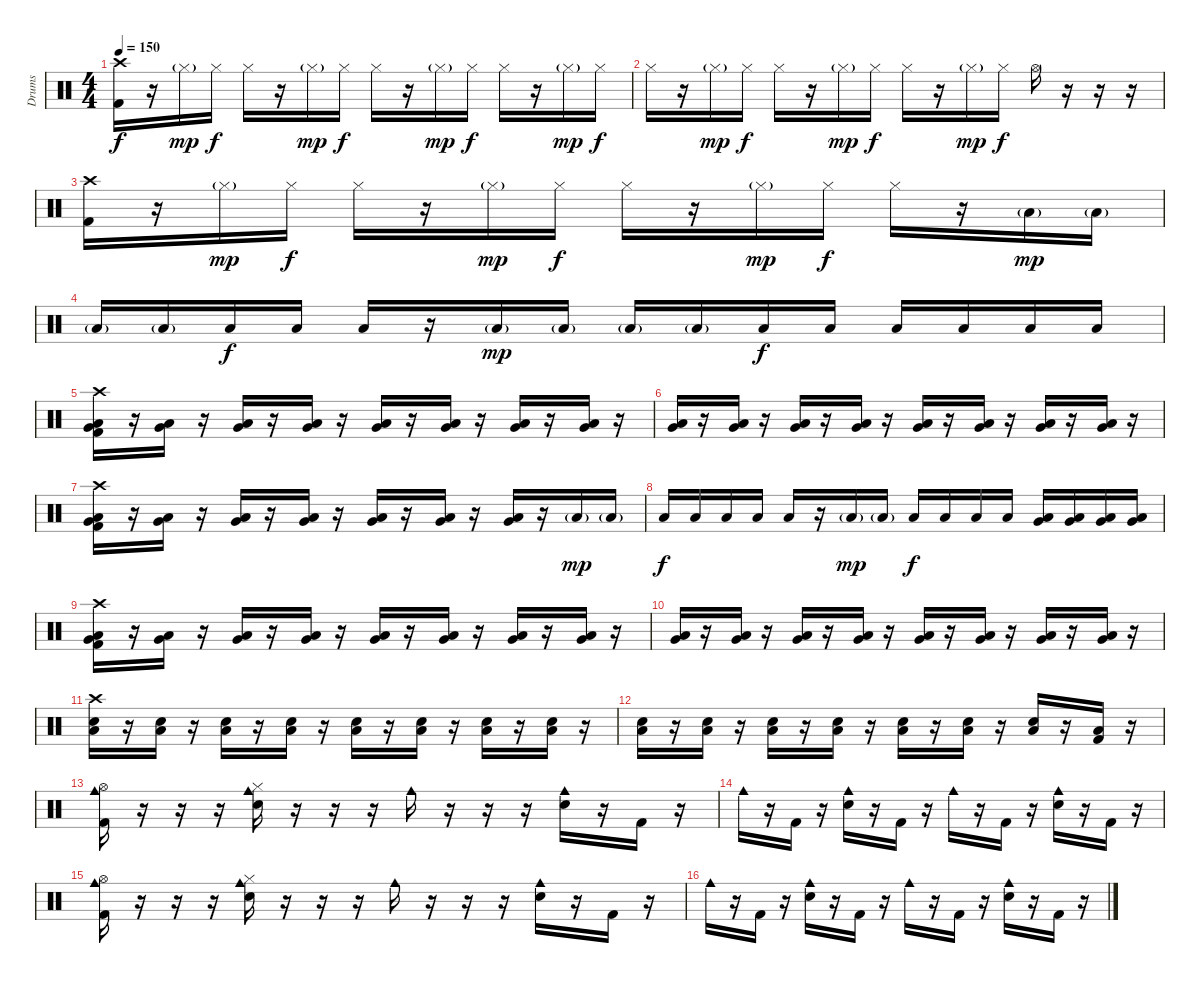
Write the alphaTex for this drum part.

\track ("Drums" "Drums") {instrument percussion}
\staff {score}
\articulation defaults
\ts (4 4)
\tempo 150
\clef neutral
\ks c
("Crash high (hit)" "Kick (hit) 2").16{dy f} r.16 "Hi-Hat (closed)"{g}.16{dy mp} "Hi-Hat (closed)".16{dy f} "Hi-Hat (closed)".16 r.16 "Hi-Hat (closed)"{g}.16{dy mp} "Hi-Hat (closed)".16{dy f} "Hi-Hat (closed)".16 r.16 "Hi-Hat (closed)"{g}.16{dy mp} "Hi-Hat (closed)".16{dy f} "Hi-Hat (closed)".16 r.16 "Hi-Hat (closed)"{g}.16{dy mp} "Hi-Hat (closed)".16{dy f} |
"Hi-Hat (closed)".16 r.16 "Hi-Hat (closed)"{g}.16{dy mp} "Hi-Hat (closed)".16{dy f} "Hi-Hat (closed)".16 r.16 "Hi-Hat (closed)"{g}.16{dy mp} "Hi-Hat (closed)".16{dy f} "Hi-Hat (closed)".16 r.16 "Hi-Hat (closed)"{g}.16{dy mp} "Hi-Hat (closed)".16{dy f} "Hi-Hat (open)".16 r.16 r.16 r.16 |
("Crash high (hit)" "Kick (hit) 2").16 r.16 "Hi-Hat (closed)"{g}.16{dy mp} "Hi-Hat (closed)".16{dy f} "Hi-Hat (closed)".16 r.16 "Hi-Hat (closed)"{g}.16{dy mp} "Hi-Hat (closed)".16{dy f} "Hi-Hat (closed)".16 r.16 "Hi-Hat (closed)"{g}.16{dy mp} "Hi-Hat (closed)".16{dy f} "Hi-Hat (closed)".16 r.16 "Low Floor Tom (hit)"{g}.16{dy mp} "Low Floor Tom (hit)"{g}.16 |
"Low Floor Tom (hit)"{g}.16 "Low Floor Tom (hit)"{g}.16 "Low Floor Tom (hit)".16{dy f} "Low Floor Tom (hit)".16 "Low Floor Tom (hit)".16 r.16 "Low Floor Tom (hit)"{g}.16{dy mp} "Low Floor Tom (hit)"{g}.16 "Low Floor Tom (hit)"{g}.16 "Low Floor Tom (hit)"{g}.16 "Low Floor Tom (hit)".16{dy f} "Low Floor Tom (hit)".16 "Low Floor Tom (hit)".16 "Low Floor Tom (hit)".16 "Low Floor Tom (hit)".16 "Low Floor Tom (hit)".16 |
("Crash high (hit)" "Very Low Tom (hit)" "Low Floor Tom (hit)" "Kick (hit) 2").16 r.16 ("Very Low Tom (hit)" "Low Floor Tom (hit)").16 r.16 ("Very Low Tom (hit)" "Low Floor Tom (hit)").16 r.16 ("Very Low Tom (hit)" "Low Floor Tom (hit)").16 r.16 ("Very Low Tom (hit)" "Low Floor Tom (hit)").16 r.16 ("Very Low Tom (hit)" "Low Floor Tom (hit)").16 r.16 ("Very Low Tom (hit)" "Low Floor Tom (hit)").16 r.16 ("Very Low Tom (hit)" "Low Floor Tom (hit)").16 r.16 |
("Very Low Tom (hit)" "Low Floor Tom (hit)").16 r.16 ("Very Low Tom (hit)" "Low Floor Tom (hit)").16 r.16 ("Very Low Tom (hit)" "Low Floor Tom (hit)").16 r.16 ("Very Low Tom (hit)" "Low Floor Tom (hit)").16 r.16 ("Very Low Tom (hit)" "Low Floor Tom (hit)").16 r.16 ("Very Low Tom (hit)" "Low Floor Tom (hit)").16 r.16 ("Very Low Tom (hit)" "Low Floor Tom (hit)").16 r.16 ("Very Low Tom (hit)" "Low Floor Tom (hit)").16 r.16 |
("Crash high (hit)" "Very Low Tom (hit)" "Low Floor Tom (hit)" "Kick (hit) 2").16 r.16 ("Very Low Tom (hit)" "Low Floor Tom (hit)").16 r.16 ("Very Low Tom (hit)" "Low Floor Tom (hit)").16 r.16 ("Very Low Tom (hit)" "Low Floor Tom (hit)").16 r.16 ("Very Low Tom (hit)" "Low Floor Tom (hit)").16 r.16 ("Very Low Tom (hit)" "Low Floor Tom (hit)").16 r.16 ("Very Low Tom (hit)" "Low Floor Tom (hit)").16 r.16 "Low Floor Tom (hit)"{g}.16{dy mp} "Low Floor Tom (hit)"{g}.16 |
"Low Floor Tom (hit)".16{dy f} "Low Floor Tom (hit)".16 "Low Floor Tom (hit)".16 "Low Floor Tom (hit)".16 "Low Floor Tom (hit)".16 r.16 "Low Floor Tom (hit)"{g}.16{dy mp} "Low Floor Tom (hit)"{g}.16 "Low Floor Tom (hit)".16{dy f} "Low Floor Tom (hit)".16 "Low Floor Tom (hit)".16 "Low Floor Tom (hit)".16 ("Very Low Tom (hit)" "Low Floor Tom (hit)").16 ("Very Low Tom (hit)" "Low Floor Tom (hit)").16 ("Very Low Tom (hit)" "Low Floor Tom (hit)").16 ("Very Low Tom (hit)" "Low Floor Tom (hit)").16 |
("Crash high (hit)" "Very Low Tom (hit)" "Low Floor Tom (hit)" "Kick (hit) 2").16 r.16 ("Very Low Tom (hit)" "Low Floor Tom (hit)").16 r.16 ("Very Low Tom (hit)" "Low Floor Tom (hit)").16 r.16 ("Very Low Tom (hit)" "Low Floor Tom (hit)").16 r.16 ("Very Low Tom (hit)" "Low Floor Tom (hit)").16 r.16 ("Very Low Tom (hit)" "Low Floor Tom (hit)").16 r.16 ("Very Low Tom (hit)" "Low Floor Tom (hit)").16 r.16 ("Very Low Tom (hit)" "Low Floor Tom (hit)").16 r.16 |
("Very Low Tom (hit)" "Low Floor Tom (hit)").16 r.16 ("Very Low Tom (hit)" "Low Floor Tom (hit)").16 r.16 ("Very Low Tom (hit)" "Low Floor Tom (hit)").16 r.16 ("Very Low Tom (hit)" "Low Floor Tom (hit)").16 r.16 ("Very Low Tom (hit)" "Low Floor Tom (hit)").16 r.16 ("Very Low Tom (hit)" "Low Floor Tom (hit)").16 r.16 ("Very Low Tom (hit)" "Low Floor Tom (hit)").16 r.16 ("Very Low Tom (hit)" "Low Floor Tom (hit)").16 r.16 |
("Crash high (hit)" "Low Floor Tom (hit)" "Snare (hit) 2").16 r.16 ("Low Floor Tom (hit)" "Snare (hit) 2").16 r.16 ("Low Floor Tom (hit)" "Snare (hit) 2").16 r.16 ("Low Floor Tom (hit)" "Snare (hit) 2").16 r.16 ("Low Floor Tom (hit)" "Snare (hit) 2").16 r.16 ("Low Floor Tom (hit)" "Snare (hit) 2").16 r.16 ("Low Floor Tom (hit)" "Snare (hit) 2").16 r.16 ("Low Floor Tom (hit)" "Snare (hit) 2").16 r.16 |
("Low Floor Tom (hit)" "Snare (hit) 2").16 r.16 ("Low Floor Tom (hit)" "Snare (hit) 2").16 r.16 ("Low Floor Tom (hit)" "Snare (hit) 2").16 r.16 ("Low Floor Tom (hit)" "Snare (hit) 2").16 r.16 ("Low Floor Tom (hit)" "Snare (hit) 2").16 r.16 ("Low Floor Tom (hit)" "Snare (hit) 2").16 r.16 ("Low Floor Tom (hit)" "Snare (hit) 2").16 r.16 ("Low Floor Tom (hit)" "Kick (hit) 2").16 r.16 |
("Cowbell medium (hit)" "Hi-Hat (open)" "Kick (hit) 2").16 r.16 r.16 r.16 ("Cowbell medium (hit)" "Hi-Hat (closed)" "Snare (hit) 2").16 r.16 r.16 r.16 "Cowbell medium (hit)".16 r.16 r.16 r.16 ("Cowbell medium (hit)" "Snare (hit) 2").16 r.16 "Kick (hit) 2".16 r.16 |
"Cowbell medium (hit)".16 r.16 "Kick (hit) 2".16 r.16 ("Cowbell medium (hit)" "Snare (hit) 2").16 r.16 "Kick (hit) 2".16 r.16 "Cowbell medium (hit)".16 r.16 "Kick (hit) 2".16 r.16 ("Cowbell medium (hit)" "Snare (hit) 2").16 r.16 "Kick (hit) 2".16 r.16 |
("Cowbell medium (hit)" "Hi-Hat (open)" "Kick (hit) 2").16 r.16 r.16 r.16 ("Cowbell medium (hit)" "Hi-Hat (closed)" "Snare (hit) 2").16 r.16 r.16 r.16 "Cowbell medium (hit)".16 r.16 r.16 r.16 ("Cowbell medium (hit)" "Snare (hit) 2").16 r.16 "Kick (hit) 2".16 r.16 |
"Cowbell medium (hit)".16 r.16 "Kick (hit) 2".16 r.16 ("Cowbell medium (hit)" "Snare (hit) 2").16 r.16 "Kick (hit) 2".16 r.16 "Cowbell medium (hit)".16 r.16 "Kick (hit) 2".16 r.16 ("Cowbell medium (hit)" "Snare (hit) 2").16 r.16 "Kick (hit) 2".16 r.16
